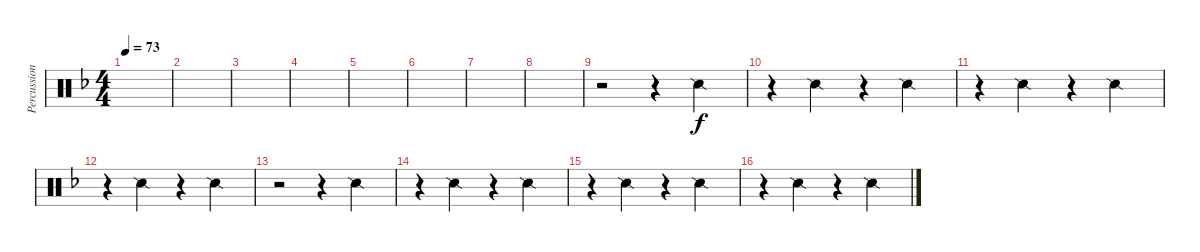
\track ("Percussion" "Percussion") {instrument percussion}
\staff {score}
\articulation defaults
\ts (4 4)
\tempo 73
\clef neutral
\ks f
|
|
|
|
|
|
|
|
r.2 r.4 "Snare (side stick) 2".4 |
r.4 "Snare (side stick) 2".4 r.4 "Snare (side stick) 2".4 |
r.4 "Snare (side stick) 2".4 r.4 "Snare (side stick) 2".4 |
r.4 "Snare (side stick) 2".4 r.4 "Snare (side stick) 2".4 |
r.2 r.4 "Snare (side stick) 2".4 |
r.4 "Snare (side stick) 2".4 r.4 "Snare (side stick) 2".4 |
r.4 "Snare (side stick) 2".4 r.4 "Snare (side stick) 2".4 |
r.4 "Snare (side stick) 2".4 r.4 "Snare (side stick) 2".4
